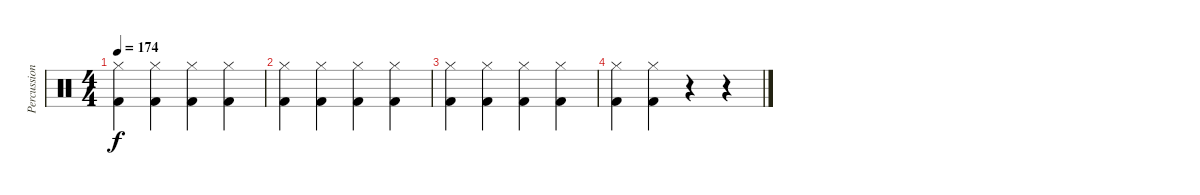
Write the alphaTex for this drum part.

\track ("Percussion" "Percussion") {instrument percussion}
\staff {score}
\articulation defaults
\ts (4 4)
\tempo 174
\clef neutral
\ks c
("Hi-Hat (closed)" "Kick (hit) 2").4{dy f} ("Hi-Hat (closed)" "Kick (hit) 2").4 ("Hi-Hat (closed)" "Kick (hit) 2").4 ("Hi-Hat (closed)" "Kick (hit) 2").4 |
("Hi-Hat (closed)" "Kick (hit) 2").4 ("Hi-Hat (closed)" "Kick (hit) 2").4 ("Hi-Hat (closed)" "Kick (hit) 2").4 ("Hi-Hat (closed)" "Kick (hit) 2").4 |
("Hi-Hat (closed)" "Kick (hit) 2").4 ("Hi-Hat (closed)" "Kick (hit) 2").4 ("Hi-Hat (closed)" "Kick (hit) 2").4 ("Hi-Hat (closed)" "Kick (hit) 2").4 |
("Hi-Hat (closed)" "Kick (hit) 2").4 ("Hi-Hat (closed)" "Kick (hit) 2").4 r.4 r.4
